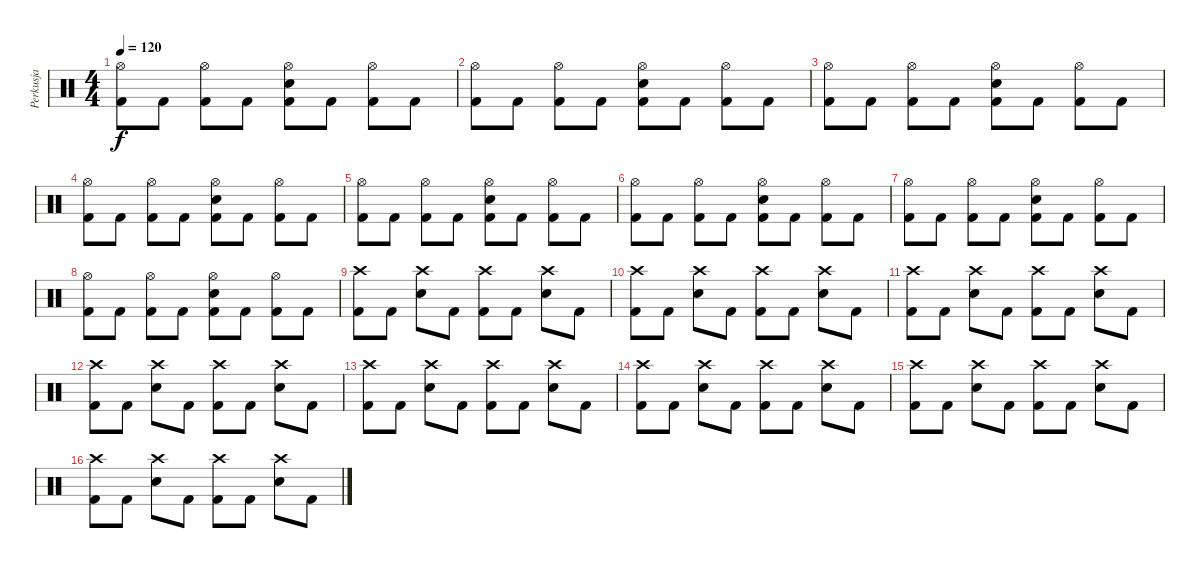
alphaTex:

\track ("Perkusja" "Perkusja") {instrument percussion}
\staff {score}
\articulation defaults
\ts (4 4)
\tempo 120
\clef neutral
\ks c
("Hi-Hat (open)" "Kick (hit) 2").8{dy f} "Kick (hit) 2".8 ("Hi-Hat (open)" "Kick (hit) 2").8 "Kick (hit) 2".8 ("Hi-Hat (open)" "Snare (hit) 2" "Kick (hit) 2").8 "Kick (hit) 2".8 ("Hi-Hat (open)" "Kick (hit) 2").8 "Kick (hit) 2".8 |
("Hi-Hat (open)" "Kick (hit) 2").8 "Kick (hit) 2".8 ("Hi-Hat (open)" "Kick (hit) 2").8 "Kick (hit) 2".8 ("Hi-Hat (open)" "Snare (hit) 2" "Kick (hit) 2").8 "Kick (hit) 2".8 ("Hi-Hat (open)" "Kick (hit) 2").8 "Kick (hit) 2".8 |
("Hi-Hat (open)" "Kick (hit) 2").8 "Kick (hit) 2".8 ("Hi-Hat (open)" "Kick (hit) 2").8 "Kick (hit) 2".8 ("Hi-Hat (open)" "Snare (hit) 2" "Kick (hit) 2").8 "Kick (hit) 2".8 ("Hi-Hat (open)" "Kick (hit) 2").8 "Kick (hit) 2".8 |
("Hi-Hat (open)" "Kick (hit) 2").8 "Kick (hit) 2".8 ("Hi-Hat (open)" "Kick (hit) 2").8 "Kick (hit) 2".8 ("Hi-Hat (open)" "Snare (hit) 2" "Kick (hit) 2").8 "Kick (hit) 2".8 ("Hi-Hat (open)" "Kick (hit) 2").8 "Kick (hit) 2".8 |
("Hi-Hat (open)" "Kick (hit) 2").8 "Kick (hit) 2".8 ("Hi-Hat (open)" "Kick (hit) 2").8 "Kick (hit) 2".8 ("Hi-Hat (open)" "Snare (hit) 2" "Kick (hit) 2").8 "Kick (hit) 2".8 ("Hi-Hat (open)" "Kick (hit) 2").8 "Kick (hit) 2".8 |
("Hi-Hat (open)" "Kick (hit) 2").8 "Kick (hit) 2".8 ("Hi-Hat (open)" "Kick (hit) 2").8 "Kick (hit) 2".8 ("Hi-Hat (open)" "Snare (hit) 2" "Kick (hit) 2").8 "Kick (hit) 2".8 ("Hi-Hat (open)" "Kick (hit) 2").8 "Kick (hit) 2".8 |
("Hi-Hat (open)" "Kick (hit) 2").8 "Kick (hit) 2".8 ("Hi-Hat (open)" "Kick (hit) 2").8 "Kick (hit) 2".8 ("Hi-Hat (open)" "Snare (hit) 2" "Kick (hit) 2").8 "Kick (hit) 2".8 ("Hi-Hat (open)" "Kick (hit) 2").8 "Kick (hit) 2".8 |
("Hi-Hat (open)" "Kick (hit) 2").8 "Kick (hit) 2".8 ("Hi-Hat (open)" "Kick (hit) 2").8 "Kick (hit) 2".8 ("Hi-Hat (open)" "Snare (hit) 2" "Kick (hit) 2").8 "Kick (hit) 2".8 ("Hi-Hat (open)" "Kick (hit) 2").8 "Kick (hit) 2".8 |
("Crash high (hit)" "Kick (hit) 2").8 "Kick (hit) 2".8 ("Crash high (hit)" "Snare (hit) 2").8 "Kick (hit) 2".8 ("Crash high (hit)" "Kick (hit) 2").8 "Kick (hit) 2".8 ("Crash high (hit)" "Snare (hit) 2").8 "Kick (hit) 2".8 |
("Crash high (hit)" "Kick (hit) 2").8 "Kick (hit) 2".8 ("Crash high (hit)" "Snare (hit) 2").8 "Kick (hit) 2".8 ("Crash high (hit)" "Kick (hit) 2").8 "Kick (hit) 2".8 ("Crash high (hit)" "Snare (hit) 2").8 "Kick (hit) 2".8 |
("Crash high (hit)" "Kick (hit) 2").8 "Kick (hit) 2".8 ("Crash high (hit)" "Snare (hit) 2").8 "Kick (hit) 2".8 ("Crash high (hit)" "Kick (hit) 2").8 "Kick (hit) 2".8 ("Crash high (hit)" "Snare (hit) 2").8 "Kick (hit) 2".8 |
("Crash high (hit)" "Kick (hit) 2").8 "Kick (hit) 2".8 ("Crash high (hit)" "Snare (hit) 2").8 "Kick (hit) 2".8 ("Crash high (hit)" "Kick (hit) 2").8 "Kick (hit) 2".8 ("Crash high (hit)" "Snare (hit) 2").8 "Kick (hit) 2".8 |
("Crash high (hit)" "Kick (hit) 2").8 "Kick (hit) 2".8 ("Crash high (hit)" "Snare (hit) 2").8 "Kick (hit) 2".8 ("Crash high (hit)" "Kick (hit) 2").8 "Kick (hit) 2".8 ("Crash high (hit)" "Snare (hit) 2").8 "Kick (hit) 2".8 |
("Crash high (hit)" "Kick (hit) 2").8 "Kick (hit) 2".8 ("Crash high (hit)" "Snare (hit) 2").8 "Kick (hit) 2".8 ("Crash high (hit)" "Kick (hit) 2").8 "Kick (hit) 2".8 ("Crash high (hit)" "Snare (hit) 2").8 "Kick (hit) 2".8 |
("Crash high (hit)" "Kick (hit) 2").8 "Kick (hit) 2".8 ("Crash high (hit)" "Snare (hit) 2").8 "Kick (hit) 2".8 ("Crash high (hit)" "Kick (hit) 2").8 "Kick (hit) 2".8 ("Crash high (hit)" "Snare (hit) 2").8 "Kick (hit) 2".8 |
("Crash high (hit)" "Kick (hit) 2").8 "Kick (hit) 2".8 ("Crash high (hit)" "Snare (hit) 2").8 "Kick (hit) 2".8 ("Crash high (hit)" "Kick (hit) 2").8 "Kick (hit) 2".8 ("Crash high (hit)" "Snare (hit) 2").8 "Kick (hit) 2".8
